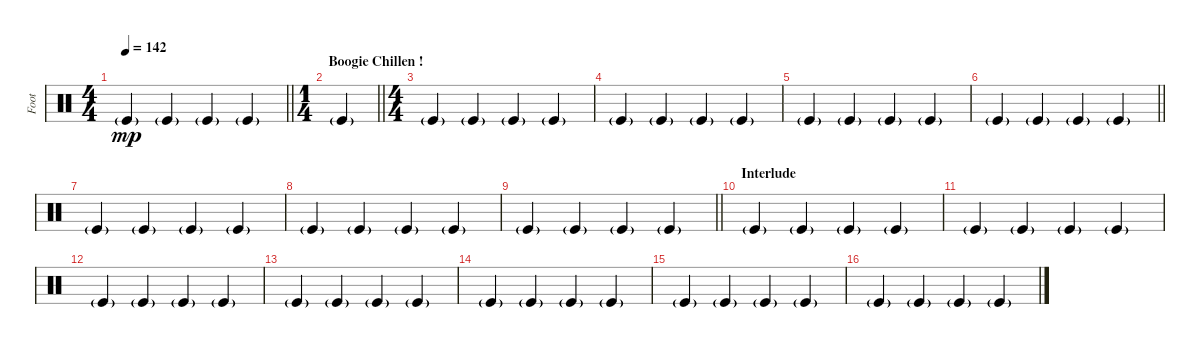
\track ("Foot" "Foot") {instrument percussion}
\staff {score}
\articulation defaults
\ts (4 4)
\tempo 142
\clef neutral
\barLineRight lightlight
\ks c "Kick (hit)"{g}.4{dy mp} "Kick (hit)"{g}.4 "Kick (hit)"{g}.4 "Kick (hit)"{g}.4
|
\ts (1 4)
\section ("" "Boogie Chillen !")
\barLineRight lightlight "Kick (hit)"{g}.4
|
\ts (4 4)
"Kick (hit)"{g}.4 "Kick (hit)"{g}.4 "Kick (hit)"{g}.4 "Kick (hit)"{g}.4 |
"Kick (hit)"{g}.4 "Kick (hit)"{g}.4 "Kick (hit)"{g}.4 "Kick (hit)"{g}.4 |
"Kick (hit)"{g}.4 "Kick (hit)"{g}.4 "Kick (hit)"{g}.4 "Kick (hit)"{g}.4 |
\barLineRight lightlight "Kick (hit)"{g}.4 "Kick (hit)"{g}.4 "Kick (hit)"{g}.4 "Kick (hit)"{g}.4
|
"Kick (hit)"{g}.4 "Kick (hit)"{g}.4 "Kick (hit)"{g}.4 "Kick (hit)"{g}.4 |
"Kick (hit)"{g}.4 "Kick (hit)"{g}.4 "Kick (hit)"{g}.4 "Kick (hit)"{g}.4 |
\barLineRight lightlight "Kick (hit)"{g}.4 "Kick (hit)"{g}.4 "Kick (hit)"{g}.4 "Kick (hit)"{g}.4
|
\section ("" "Interlude")
"Kick (hit)"{g}.4 "Kick (hit)"{g}.4 "Kick (hit)"{g}.4 "Kick (hit)"{g}.4 |
"Kick (hit)"{g}.4 "Kick (hit)"{g}.4 "Kick (hit)"{g}.4 "Kick (hit)"{g}.4 |
"Kick (hit)"{g}.4 "Kick (hit)"{g}.4 "Kick (hit)"{g}.4 "Kick (hit)"{g}.4 |
"Kick (hit)"{g}.4 "Kick (hit)"{g}.4 "Kick (hit)"{g}.4 "Kick (hit)"{g}.4 |
"Kick (hit)"{g}.4 "Kick (hit)"{g}.4 "Kick (hit)"{g}.4 "Kick (hit)"{g}.4 |
"Kick (hit)"{g}.4 "Kick (hit)"{g}.4 "Kick (hit)"{g}.4 "Kick (hit)"{g}.4 |
"Kick (hit)"{g}.4 "Kick (hit)"{g}.4 "Kick (hit)"{g}.4 "Kick (hit)"{g}.4
